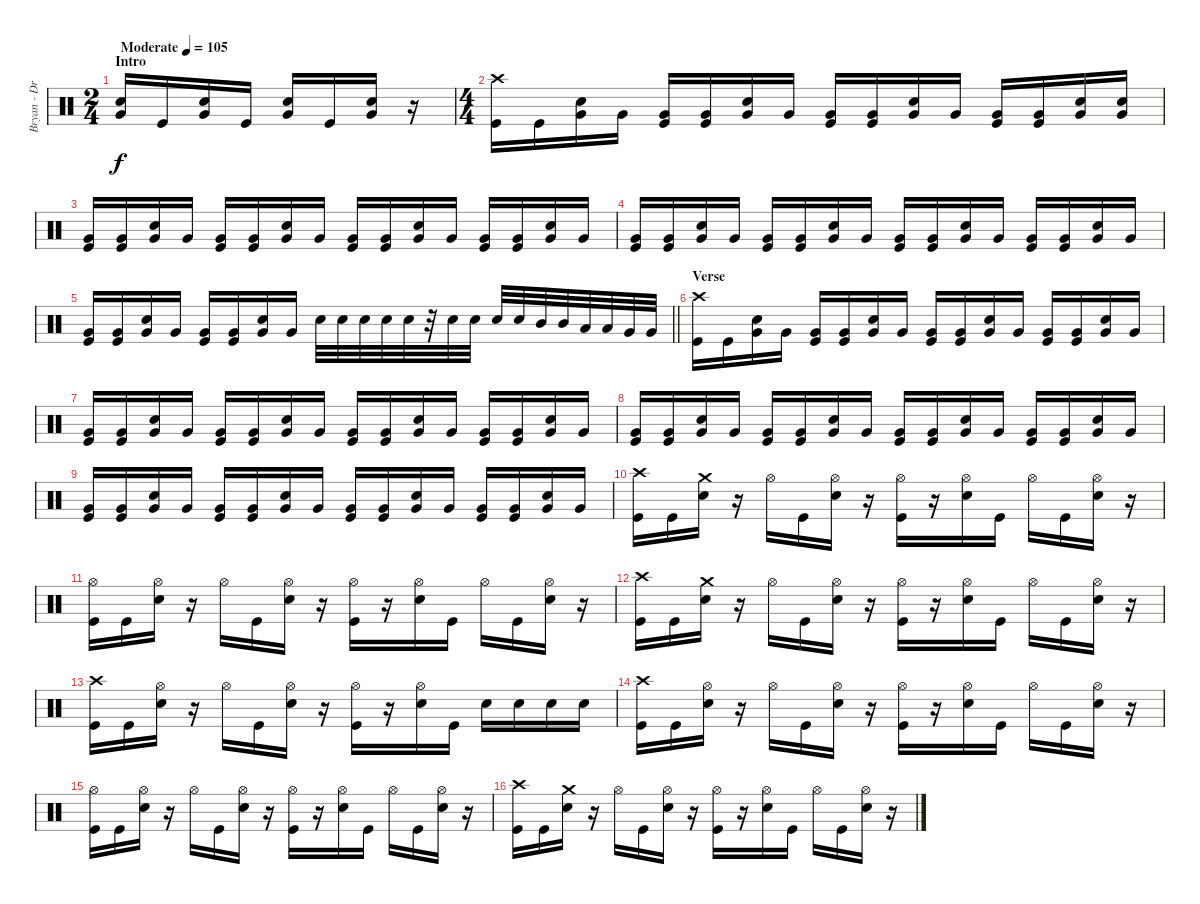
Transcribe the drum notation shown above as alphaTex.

\track ("Bryan - Drums" "Bryan - Dr") {instrument percussion}
\staff {score}
\articulation defaults
\ts (2 4)
\section ("" "Intro")
\tempo (105 "Moderate")
\clef neutral
\ks c
("Very Low Tom (hit)" "Snare (hit) 2").16{dy f} "Kick (hit)".16 ("Very Low Tom (hit)" "Snare (hit) 2").16 "Kick (hit)".16 ("Very Low Tom (hit)" "Snare (hit) 2").16 "Kick (hit)".16 ("Very Low Tom (hit)" "Snare (hit) 2").16 r.16 |
\ts (4 4)
("Crash high (hit)" "Kick (hit)").16 "Kick (hit)".16 ("Very Low Tom (hit)" "Snare (hit) 2").16 "Very Low Tom (hit)".16 ("Very Low Tom (hit)" "Kick (hit)").16 ("Very Low Tom (hit)" "Kick (hit)").16 ("Very Low Tom (hit)" "Snare (hit) 2").16 "Very Low Tom (hit)".16 ("Very Low Tom (hit)" "Kick (hit)").16 ("Very Low Tom (hit)" "Kick (hit)").16 ("Very Low Tom (hit)" "Snare (hit) 2").16 "Very Low Tom (hit)".16 ("Very Low Tom (hit)" "Kick (hit)").16 ("Very Low Tom (hit)" "Kick (hit)").16 ("Very Low Tom (hit)" "Snare (hit) 2").16 ("Very Low Tom (hit)" "Snare (hit) 2").16 |
("Very Low Tom (hit)" "Kick (hit)").16 ("Very Low Tom (hit)" "Kick (hit)").16 ("Very Low Tom (hit)" "Snare (hit) 2").16 "Very Low Tom (hit)".16 ("Very Low Tom (hit)" "Kick (hit)").16 ("Very Low Tom (hit)" "Kick (hit)").16 ("Very Low Tom (hit)" "Snare (hit) 2").16 "Very Low Tom (hit)".16 ("Very Low Tom (hit)" "Kick (hit)").16 ("Very Low Tom (hit)" "Kick (hit)").16 ("Very Low Tom (hit)" "Snare (hit) 2").16 "Very Low Tom (hit)".16 ("Very Low Tom (hit)" "Kick (hit)").16 ("Very Low Tom (hit)" "Kick (hit)").16 ("Very Low Tom (hit)" "Snare (hit) 2").16 "Very Low Tom (hit)".16 |
("Very Low Tom (hit)" "Kick (hit)").16 ("Very Low Tom (hit)" "Kick (hit)").16 ("Very Low Tom (hit)" "Snare (hit) 2").16 "Very Low Tom (hit)".16 ("Very Low Tom (hit)" "Kick (hit)").16 ("Very Low Tom (hit)" "Kick (hit)").16 ("Very Low Tom (hit)" "Snare (hit) 2").16 "Very Low Tom (hit)".16 ("Very Low Tom (hit)" "Kick (hit)").16 ("Very Low Tom (hit)" "Kick (hit)").16 ("Very Low Tom (hit)" "Snare (hit) 2").16 "Very Low Tom (hit)".16 ("Very Low Tom (hit)" "Kick (hit)").16 ("Very Low Tom (hit)" "Kick (hit)").16 ("Very Low Tom (hit)" "Snare (hit) 2").16 "Very Low Tom (hit)".16 |
\barLineRight lightlight
("Very Low Tom (hit)" "Kick (hit)").16 ("Very Low Tom (hit)" "Kick (hit)").16 ("Very Low Tom (hit)" "Snare (hit) 2").16 "Very Low Tom (hit)".16 ("Very Low Tom (hit)" "Kick (hit)").16 ("Very Low Tom (hit)" "Kick (hit)").16 ("Very Low Tom (hit)" "Snare (hit) 2").16 "Very Low Tom (hit)".16 "Snare (hit) 2".32 "Snare (hit) 2".32 "Snare (hit) 2".32 "Snare (hit) 2".32 "Snare (hit) 2".32 r.32 "Snare (hit) 2".32 "Snare (hit) 2".32 "Snare (hit) 2".32 "Snare (hit) 2".32 "Mid Tom (hit)".32 "Mid Tom (hit)".32 "Low Tom (hit)".32 "Low Tom (hit)".32 "Very Low Tom (hit)".32 "Very Low Tom (hit)".32 |
\section ("" "Verse")
("Crash high (hit)" "Kick (hit)").16 "Kick (hit)".16 ("Very Low Tom (hit)" "Snare (hit) 2").16 "Very Low Tom (hit)".16 ("Very Low Tom (hit)" "Kick (hit)").16 ("Very Low Tom (hit)" "Kick (hit)").16 ("Very Low Tom (hit)" "Snare (hit) 2").16 "Very Low Tom (hit)".16 ("Very Low Tom (hit)" "Kick (hit)").16 ("Very Low Tom (hit)" "Kick (hit)").16 ("Very Low Tom (hit)" "Snare (hit) 2").16 "Very Low Tom (hit)".16 ("Very Low Tom (hit)" "Kick (hit)").16 ("Very Low Tom (hit)" "Kick (hit)").16 ("Very Low Tom (hit)" "Snare (hit) 2").16 "Very Low Tom (hit)".16 |
("Very Low Tom (hit)" "Kick (hit)").16 ("Very Low Tom (hit)" "Kick (hit)").16 ("Very Low Tom (hit)" "Snare (hit) 2").16 "Very Low Tom (hit)".16 ("Very Low Tom (hit)" "Kick (hit)").16 ("Very Low Tom (hit)" "Kick (hit)").16 ("Very Low Tom (hit)" "Snare (hit) 2").16 "Very Low Tom (hit)".16 ("Very Low Tom (hit)" "Kick (hit)").16 ("Very Low Tom (hit)" "Kick (hit)").16 ("Very Low Tom (hit)" "Snare (hit) 2").16 "Very Low Tom (hit)".16 ("Very Low Tom (hit)" "Kick (hit)").16 ("Very Low Tom (hit)" "Kick (hit)").16 ("Very Low Tom (hit)" "Snare (hit) 2").16 "Very Low Tom (hit)".16 |
("Very Low Tom (hit)" "Kick (hit)").16 ("Very Low Tom (hit)" "Kick (hit)").16 ("Very Low Tom (hit)" "Snare (hit) 2").16 "Very Low Tom (hit)".16 ("Very Low Tom (hit)" "Kick (hit)").16 ("Very Low Tom (hit)" "Kick (hit)").16 ("Very Low Tom (hit)" "Snare (hit) 2").16 "Very Low Tom (hit)".16 ("Very Low Tom (hit)" "Kick (hit)").16 ("Very Low Tom (hit)" "Kick (hit)").16 ("Very Low Tom (hit)" "Snare (hit) 2").16 "Very Low Tom (hit)".16 ("Very Low Tom (hit)" "Kick (hit)").16 ("Very Low Tom (hit)" "Kick (hit)").16 ("Very Low Tom (hit)" "Snare (hit) 2").16 "Very Low Tom (hit)".16 |
("Very Low Tom (hit)" "Kick (hit)").16 ("Very Low Tom (hit)" "Kick (hit)").16 ("Very Low Tom (hit)" "Snare (hit) 2").16 "Very Low Tom (hit)".16 ("Very Low Tom (hit)" "Kick (hit)").16 ("Very Low Tom (hit)" "Kick (hit)").16 ("Very Low Tom (hit)" "Snare (hit) 2").16 "Very Low Tom (hit)".16 ("Very Low Tom (hit)" "Kick (hit)").16 ("Very Low Tom (hit)" "Kick (hit)").16 ("Very Low Tom (hit)" "Snare (hit) 2").16 "Very Low Tom (hit)".16 ("Very Low Tom (hit)" "Kick (hit)").16 ("Very Low Tom (hit)" "Kick (hit)").16 ("Very Low Tom (hit)" "Snare (hit) 2").16 "Very Low Tom (hit)".16 |
("Crash high (hit)" "Kick (hit)").16 "Kick (hit)".16 ("Crash medium (hit)" "Snare (hit) 2").16 r.16 "Hi-Hat (open)".16 "Kick (hit)".16 ("Hi-Hat (open)" "Snare (hit) 2").16 r.16 ("Hi-Hat (open)" "Kick (hit)").16 r.16 ("Hi-Hat (open)" "Snare (hit) 2").16 "Kick (hit)".16 "Hi-Hat (open)".16 "Kick (hit)".16 ("Hi-Hat (open)" "Snare (hit) 2").16 r.16 |
("Hi-Hat (open)" "Kick (hit)").16 "Kick (hit)".16 ("Hi-Hat (open)" "Snare (hit) 2").16 r.16 "Hi-Hat (open)".16 "Kick (hit)".16 ("Hi-Hat (open)" "Snare (hit) 2").16 r.16 ("Hi-Hat (open)" "Kick (hit)").16 r.16 ("Hi-Hat (open)" "Snare (hit) 2").16 "Kick (hit)".16 "Hi-Hat (open)".16 "Kick (hit)".16 ("Hi-Hat (open)" "Snare (hit) 2").16 r.16 |
("Crash high (hit)" "Kick (hit)").16 "Kick (hit)".16 ("Crash medium (hit)" "Snare (hit) 2").16 r.16 "Hi-Hat (open)".16 "Kick (hit)".16 ("Hi-Hat (open)" "Snare (hit) 2").16 r.16 ("Hi-Hat (open)" "Kick (hit)").16 r.16 ("Hi-Hat (open)" "Snare (hit) 2").16 "Kick (hit)".16 "Hi-Hat (open)".16 "Kick (hit)".16 ("Hi-Hat (open)" "Snare (hit) 2").16 r.16 |
("Crash high (hit)" "Kick (hit)").16 "Kick (hit)".16 ("Hi-Hat (open)" "Snare (hit) 2").16 r.16 "Hi-Hat (open)".16 "Kick (hit)".16 ("Hi-Hat (open)" "Snare (hit) 2").16 r.16 ("Hi-Hat (open)" "Kick (hit)").16 r.16 ("Hi-Hat (open)" "Snare (hit) 2").16 "Kick (hit)".16 "Snare (hit) 2".16 "Snare (hit) 2".16 "Snare (hit) 2".16 "Snare (hit) 2".16 |
("Crash high (hit)" "Kick (hit)").16 "Kick (hit)".16 ("Hi-Hat (open)" "Snare (hit) 2").16 r.16 "Hi-Hat (open)".16 "Kick (hit)".16 ("Hi-Hat (open)" "Snare (hit) 2").16 r.16 ("Hi-Hat (open)" "Kick (hit)").16 r.16 ("Hi-Hat (open)" "Snare (hit) 2").16 "Kick (hit)".16 "Hi-Hat (open)".16 "Kick (hit)".16 ("Hi-Hat (open)" "Snare (hit) 2").16 r.16 |
("Hi-Hat (open)" "Kick (hit)").16 "Kick (hit)".16 ("Hi-Hat (open)" "Snare (hit) 2").16 r.16 "Hi-Hat (open)".16 "Kick (hit)".16 ("Hi-Hat (open)" "Snare (hit) 2").16 r.16 ("Hi-Hat (open)" "Kick (hit)").16 r.16 ("Hi-Hat (open)" "Snare (hit) 2").16 "Kick (hit)".16 "Hi-Hat (open)".16 "Kick (hit)".16 ("Hi-Hat (open)" "Snare (hit) 2").16 r.16 |
("Crash high (hit)" "Kick (hit)").16 "Kick (hit)".16 ("Crash medium (hit)" "Snare (hit) 2").16 r.16 "Hi-Hat (open)".16 "Kick (hit)".16 ("Hi-Hat (open)" "Snare (hit) 2").16 r.16 ("Hi-Hat (open)" "Kick (hit)").16 r.16 ("Hi-Hat (open)" "Snare (hit) 2").16 "Kick (hit)".16 "Hi-Hat (open)".16 "Kick (hit)".16 ("Hi-Hat (open)" "Snare (hit) 2").16 r.16
